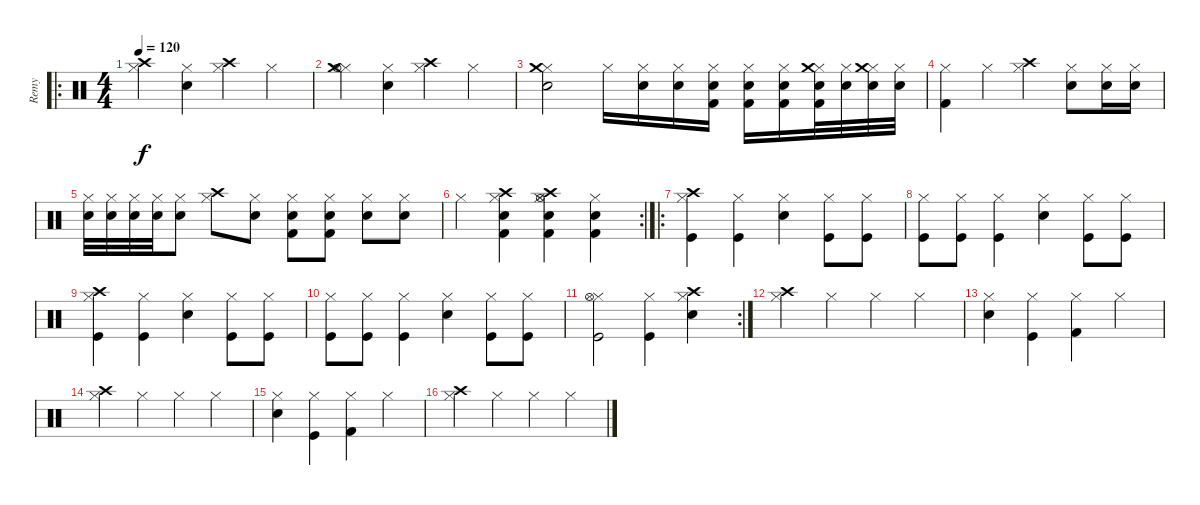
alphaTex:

\track ("Remy" "Remy") {instrument percussion}
\staff {score}
\articulation defaults
\ro
\ts (4 4)
\tempo 120
\clef neutral
\ks c
("Hi-Hat (closed)" "Crash high (hit)").4{dy f} ("Hi-Hat (closed)" "Snare (hit) 2").4 ("Hi-Hat (closed)" "Crash high (hit)").4 "Hi-Hat (closed)".4 |
("Hi-Hat (closed)" "Hi-Hat (open)" "Crash medium (hit)").4 ("Hi-Hat (closed)" "Snare (hit) 2").4 ("Hi-Hat (closed)" "Crash high (hit)").4 "Hi-Hat (closed)".4 |
("Hi-Hat (closed)" "Crash medium (hit)" "Snare (hit) 2").2 "Hi-Hat (closed)".16 ("Hi-Hat (closed)" "Snare (hit) 2").16 ("Hi-Hat (closed)" "Snare (hit) 2").16 ("Hi-Hat (closed)" "Snare (hit) 2" "Kick (hit) 2").16 ("Hi-Hat (closed)" "Snare (hit) 2" "Kick (hit) 2").16 ("Hi-Hat (closed)" "Snare (hit) 2" "Kick (hit) 2").16 ("Hi-Hat (closed)" "Snare (hit) 2" "Kick (hit) 2" "Crash medium (hit)").32 ("Hi-Hat (closed)" "Snare (hit) 2").32 ("Hi-Hat (closed)" "Snare (hit) 2" "Crash medium (hit)").32 ("Hi-Hat (closed)" "Snare (hit) 2").32 |
("Hi-Hat (closed)" "Kick (hit) 2").4 "Hi-Hat (closed)".4 ("Hi-Hat (closed)" "Crash high (hit)").4 ("Hi-Hat (closed)" "Snare (hit) 2").8 ("Hi-Hat (closed)" "Snare (hit) 2").16 ("Hi-Hat (closed)" "Snare (hit) 2").16 |
("Hi-Hat (closed)" "Snare (hit) 2").32 ("Hi-Hat (closed)" "Snare (hit) 2").32 ("Hi-Hat (closed)" "Snare (hit) 2").32 ("Hi-Hat (closed)" "Snare (hit) 2").32 ("Hi-Hat (closed)" "Snare (hit) 2").8 ("Hi-Hat (closed)" "Crash high (hit)").8 ("Hi-Hat (closed)" "Snare (hit) 2").8 ("Hi-Hat (closed)" "Snare (hit) 2" "Kick (hit) 2").8 ("Hi-Hat (closed)" "Snare (hit) 2" "Kick (hit) 2").8 ("Hi-Hat (closed)" "Snare (hit) 2").8 ("Hi-Hat (closed)" "Snare (hit) 2").8 |
\rc 2 "Hi-Hat (closed)".4
("Hi-Hat (closed)" "Snare (hit) 2" "Kick (hit) 2" "Crash high (hit)").4 ("Hi-Hat (closed)" "Snare (hit) 2" "Kick (hit) 2" "Crash high (hit)" "Hi-Hat (open)").4 ("Hi-Hat (closed)" "Snare (hit) 2" "Kick (hit) 2").4 |
\ro
("Hi-Hat (closed)" "Crash high (hit)" "Kick (hit)").4 ("Hi-Hat (closed)" "Kick (hit)").4 ("Hi-Hat (closed)" "Snare (hit) 2").4 ("Hi-Hat (closed)" "Kick (hit)").8 ("Hi-Hat (closed)" "Kick (hit)").8 |
("Hi-Hat (closed)" "Kick (hit)").8 ("Hi-Hat (closed)" "Kick (hit)").8 ("Hi-Hat (closed)" "Kick (hit)").4 ("Hi-Hat (closed)" "Snare (hit) 2").4 ("Hi-Hat (closed)" "Kick (hit)").8 ("Hi-Hat (closed)" "Kick (hit)").8 |
("Hi-Hat (closed)" "Crash high (hit)" "Kick (hit)").4 ("Hi-Hat (closed)" "Kick (hit)").4 ("Hi-Hat (closed)" "Snare (hit) 2").4 ("Hi-Hat (closed)" "Kick (hit)").8 ("Hi-Hat (closed)" "Kick (hit)").8 |
("Hi-Hat (closed)" "Kick (hit)").8 ("Hi-Hat (closed)" "Kick (hit)").8 ("Hi-Hat (closed)" "Kick (hit)").4 ("Hi-Hat (closed)" "Snare (hit) 2").4 ("Hi-Hat (closed)" "Kick (hit)").8 ("Hi-Hat (closed)" "Kick (hit)").8 |
\rc 2
("Hi-Hat (closed)" "Hi-Hat (open)" "Kick (hit)").2 ("Hi-Hat (closed)" "Kick (hit)").4 ("Hi-Hat (closed)" "Snare (hit) 2" "Crash high (hit)").4 |
("Crash high (hit)" "Hi-Hat (closed)").4 "Hi-Hat (closed)".4 "Hi-Hat (closed)".4 "Hi-Hat (closed)".4 |
("Snare (hit) 2" "Hi-Hat (closed)").4 ("Kick (hit)" "Hi-Hat (closed)").4 ("Kick (hit) 2" "Hi-Hat (closed)").4 "Hi-Hat (closed)".4 |
("Crash high (hit)" "Hi-Hat (closed)").4 "Hi-Hat (closed)".4 "Hi-Hat (closed)".4 "Hi-Hat (closed)".4 |
("Snare (hit) 2" "Hi-Hat (closed)").4 ("Kick (hit)" "Hi-Hat (closed)").4 ("Kick (hit) 2" "Hi-Hat (closed)").4 "Hi-Hat (closed)".4 |
("Crash high (hit)" "Hi-Hat (closed)").4 "Hi-Hat (closed)".4 "Hi-Hat (closed)".4 "Hi-Hat (closed)".4
